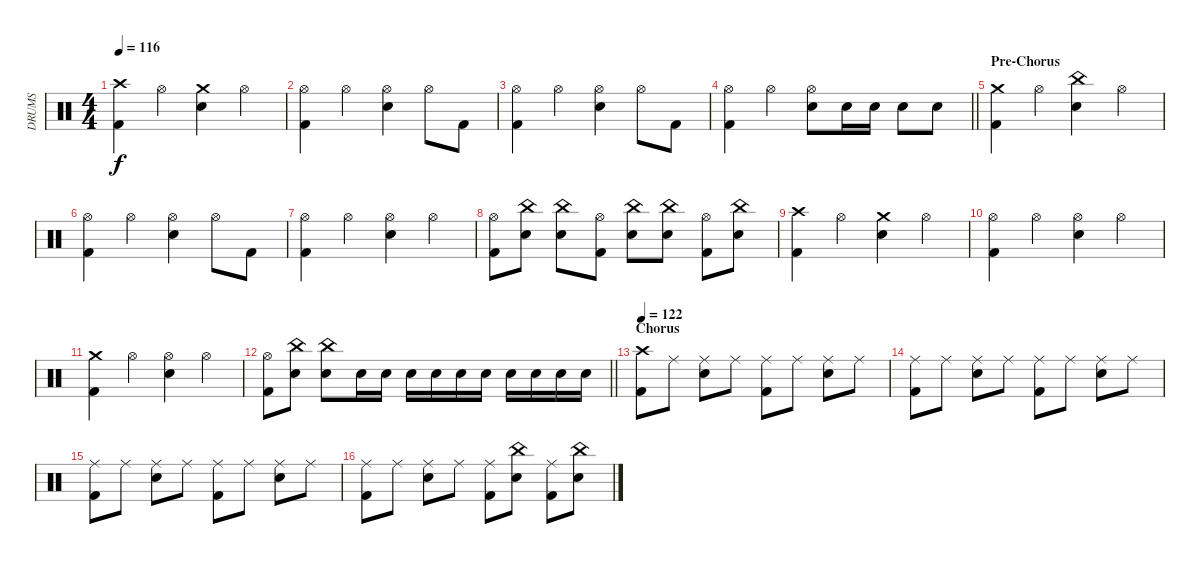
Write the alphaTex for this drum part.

\track ("DRUMS" "DRUMS") {instrument percussion}
\staff {score}
\articulation defaults
\ts (4 4)
\tempo 116
\clef neutral
\ks c
("Crash high (hit)" "Kick (hit) 2").4{dy f} "Hi-Hat (open)".4 ("Crash medium (hit)" "Snare (hit) 2").4 "Hi-Hat (open)".4 |
("Hi-Hat (open)" "Kick (hit) 2").4 "Hi-Hat (open)".4 ("Hi-Hat (open)" "Snare (hit) 2").4 "Hi-Hat (open)".8 "Kick (hit) 2".8 |
("Hi-Hat (open)" "Kick (hit) 2").4 "Hi-Hat (open)".4 ("Hi-Hat (open)" "Snare (hit) 2").4 "Hi-Hat (open)".8 "Kick (hit) 2".8 |
\barLineRight lightlight
("Hi-Hat (open)" "Kick (hit) 2").4 "Hi-Hat (open)".4 ("Hi-Hat (open)" "Snare (hit) 2").8 "Snare (hit) 2".16 "Snare (hit) 2".16 "Snare (hit) 2".8 "Snare (hit) 2".8 |
\section ("" "Pre-Chorus")
("Crash medium (hit)" "Kick (hit) 2").4 "Hi-Hat (open)".4 ("China (hit)" "Snare (hit) 2").4 "Hi-Hat (open)".4 |
("Hi-Hat (open)" "Kick (hit) 2").4 "Hi-Hat (open)".4 ("Hi-Hat (open)" "Snare (hit) 2").4 "Hi-Hat (open)".8 "Kick (hit) 2".8 |
("Hi-Hat (open)" "Kick (hit) 2").4 "Hi-Hat (open)".4 ("Hi-Hat (open)" "Snare (hit) 2").4 "Hi-Hat (open)".4 |
("Hi-Hat (open)" "Kick (hit) 2").8 ("China (hit)" "Snare (hit) 2").8 ("China (hit)" "Snare (hit) 2").8 ("Hi-Hat (open)" "Kick (hit) 2").8 ("China (hit)" "Snare (hit) 2").8 ("China (hit)" "Snare (hit) 2").8 ("Hi-Hat (open)" "Kick (hit) 2").8 ("China (hit)" "Snare (hit) 2").8 |
("Crash high (hit)" "Kick (hit) 2").4 "Hi-Hat (open)".4 ("Crash medium (hit)" "Snare (hit) 2").4 "Hi-Hat (open)".4 |
("Hi-Hat (open)" "Kick (hit) 2").4 "Hi-Hat (open)".4 ("Hi-Hat (open)" "Snare (hit) 2").4 "Hi-Hat (open)".4 |
("Crash medium (hit)" "Kick (hit) 2").4 "Hi-Hat (open)".4 ("Hi-Hat (open)" "Snare (hit) 2").4 "Hi-Hat (open)".4 |
\barLineRight lightlight
("Hi-Hat (open)" "Kick (hit) 2").8 ("China (hit)" "Snare (hit) 2").8 ("China (hit)" "Snare (hit) 2").8 "Snare (hit) 2".16 "Snare (hit) 2".16 "Snare (hit) 2".16 "Snare (hit) 2".16 "Snare (hit) 2".16 "Snare (hit) 2".16 "Snare (hit) 2".16 "Snare (hit) 2".16 "Snare (hit) 2".16 "Snare (hit) 2".16 |
\section ("" "Chorus")
\tempo 122
("Crash high (hit)" "Kick (hit) 2").8 "Ride (middle)".8 ("Ride (middle)" "Snare (hit) 2").8 "Ride (middle)".8 ("Ride (middle)" "Kick (hit) 2").8 "Ride (middle)".8 ("Ride (middle)" "Snare (hit) 2").8 "Ride (middle)".8 |
("Ride (middle)" "Kick (hit) 2").8 "Ride (middle)".8 ("Ride (middle)" "Snare (hit) 2").8 "Ride (middle)".8 ("Ride (middle)" "Kick (hit) 2").8 "Ride (middle)".8 ("Ride (middle)" "Snare (hit) 2").8 "Ride (middle)".8 |
("Ride (middle)" "Kick (hit) 2").8 "Ride (middle)".8 ("Ride (middle)" "Snare (hit) 2").8 "Ride (middle)".8 ("Ride (middle)" "Kick (hit) 2").8 "Ride (middle)".8 ("Ride (middle)" "Snare (hit) 2").8 "Ride (middle)".8 |
("Ride (middle)" "Kick (hit) 2").8 "Ride (middle)".8 ("Ride (middle)" "Snare (hit) 2").8 "Ride (middle)".8 ("Ride (middle)" "Kick (hit) 2").8 ("China (hit)" "Snare (hit) 2").8 ("Ride (middle)" "Kick (hit) 2").8 ("China (hit)" "Snare (hit) 2").8
